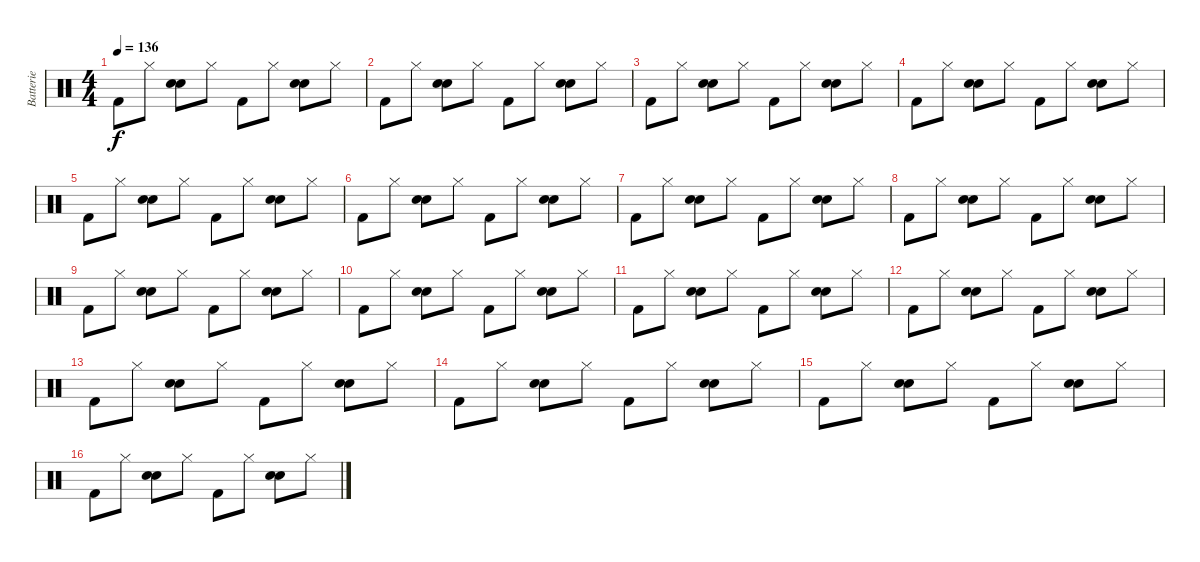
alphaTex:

\track ("Batterie" "Batterie") {instrument percussion}
\staff {score}
\articulation defaults
\ts (4 4)
\tempo 136
\clef neutral
\ks c "Kick (hit) 2".8{dy f} "Hi-Hat (closed)".8
("Electric Snare (hit)" "Snare (hit) 2").8 "Hi-Hat (closed)".8 "Kick (hit) 2".8 "Hi-Hat (closed)".8 ("Electric Snare (hit)" "Snare (hit) 2").8 "Hi-Hat (closed)".8 |
"Kick (hit) 2".8 "Hi-Hat (closed)".8 ("Electric Snare (hit)" "Snare (hit) 2").8 "Hi-Hat (closed)".8 "Kick (hit) 2".8 "Hi-Hat (closed)".8 ("Electric Snare (hit)" "Snare (hit) 2").8 "Hi-Hat (closed)".8 |
"Kick (hit) 2".8 "Hi-Hat (closed)".8 ("Electric Snare (hit)" "Snare (hit) 2").8 "Hi-Hat (closed)".8 "Kick (hit) 2".8 "Hi-Hat (closed)".8 ("Electric Snare (hit)" "Snare (hit) 2").8 "Hi-Hat (closed)".8 |
"Kick (hit) 2".8 "Hi-Hat (closed)".8 ("Electric Snare (hit)" "Snare (hit) 2").8 "Hi-Hat (closed)".8 "Kick (hit) 2".8 "Hi-Hat (closed)".8 ("Electric Snare (hit)" "Snare (hit) 2").8 "Hi-Hat (closed)".8 |
"Kick (hit) 2".8 "Hi-Hat (closed)".8 ("Electric Snare (hit)" "Snare (hit) 2").8 "Hi-Hat (closed)".8 "Kick (hit) 2".8 "Hi-Hat (closed)".8 ("Electric Snare (hit)" "Snare (hit) 2").8 "Hi-Hat (closed)".8 |
"Kick (hit) 2".8 "Hi-Hat (closed)".8 ("Electric Snare (hit)" "Snare (hit) 2").8 "Hi-Hat (closed)".8 "Kick (hit) 2".8 "Hi-Hat (closed)".8 ("Electric Snare (hit)" "Snare (hit) 2").8 "Hi-Hat (closed)".8 |
"Kick (hit) 2".8 "Hi-Hat (closed)".8 ("Electric Snare (hit)" "Snare (hit) 2").8 "Hi-Hat (closed)".8 "Kick (hit) 2".8 "Hi-Hat (closed)".8 ("Electric Snare (hit)" "Snare (hit) 2").8 "Hi-Hat (closed)".8 |
"Kick (hit) 2".8 "Hi-Hat (closed)".8 ("Electric Snare (hit)" "Snare (hit) 2").8 "Hi-Hat (closed)".8 "Kick (hit) 2".8 "Hi-Hat (closed)".8 ("Electric Snare (hit)" "Snare (hit) 2").8 "Hi-Hat (closed)".8 |
"Kick (hit) 2".8 "Hi-Hat (closed)".8 ("Electric Snare (hit)" "Snare (hit) 2").8 "Hi-Hat (closed)".8 "Kick (hit) 2".8 "Hi-Hat (closed)".8 ("Electric Snare (hit)" "Snare (hit) 2").8 "Hi-Hat (closed)".8 |
"Kick (hit) 2".8 "Hi-Hat (closed)".8 ("Electric Snare (hit)" "Snare (hit) 2").8 "Hi-Hat (closed)".8 "Kick (hit) 2".8 "Hi-Hat (closed)".8 ("Electric Snare (hit)" "Snare (hit) 2").8 "Hi-Hat (closed)".8 |
"Kick (hit) 2".8 "Hi-Hat (closed)".8 ("Electric Snare (hit)" "Snare (hit) 2").8 "Hi-Hat (closed)".8 "Kick (hit) 2".8 "Hi-Hat (closed)".8 ("Electric Snare (hit)" "Snare (hit) 2").8 "Hi-Hat (closed)".8 |
"Kick (hit) 2".8 "Hi-Hat (closed)".8 ("Electric Snare (hit)" "Snare (hit) 2").8 "Hi-Hat (closed)".8 "Kick (hit) 2".8 "Hi-Hat (closed)".8 ("Electric Snare (hit)" "Snare (hit) 2").8 "Hi-Hat (closed)".8 |
"Kick (hit) 2".8 "Hi-Hat (closed)".8 ("Electric Snare (hit)" "Snare (hit) 2").8 "Hi-Hat (closed)".8 "Kick (hit) 2".8 "Hi-Hat (closed)".8 ("Electric Snare (hit)" "Snare (hit) 2").8 "Hi-Hat (closed)".8 |
"Kick (hit) 2".8 "Hi-Hat (closed)".8 ("Electric Snare (hit)" "Snare (hit) 2").8 "Hi-Hat (closed)".8 "Kick (hit) 2".8 "Hi-Hat (closed)".8 ("Electric Snare (hit)" "Snare (hit) 2").8 "Hi-Hat (closed)".8 |
"Kick (hit) 2".8 "Hi-Hat (closed)".8 ("Electric Snare (hit)" "Snare (hit) 2").8 "Hi-Hat (closed)".8 "Kick (hit) 2".8 "Hi-Hat (closed)".8 ("Electric Snare (hit)" "Snare (hit) 2").8 "Hi-Hat (closed)".8 |
"Kick (hit) 2".8 "Hi-Hat (closed)".8 ("Electric Snare (hit)" "Snare (hit) 2").8 "Hi-Hat (closed)".8 "Kick (hit) 2".8 "Hi-Hat (closed)".8 ("Electric Snare (hit)" "Snare (hit) 2").8 "Hi-Hat (closed)".8
